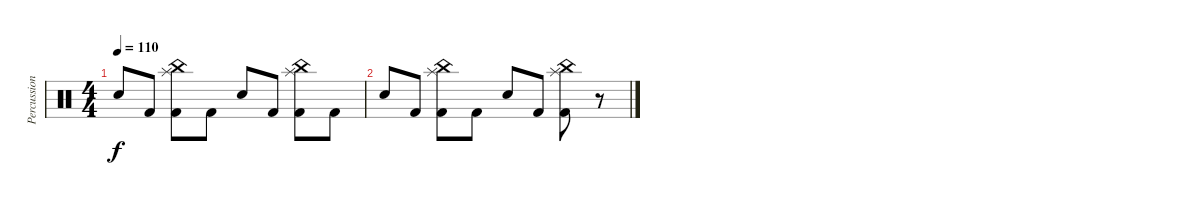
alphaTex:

\track ("Percussions" "Percussion") {instrument percussion}
\staff {score}
\articulation defaults
\ts (4 4)
\tempo 110
\clef neutral
\ks c "Snare (hit) 2".8{dy f} "Kick (hit) 2".8
("Splash (hit)" "China (hit)" "Kick (hit) 2").8 "Kick (hit) 2".8 "Snare (hit) 2".8 "Kick (hit) 2".8 ("Splash (hit)" "China (hit)" "Kick (hit) 2").8 "Kick (hit) 2".8 |
"Snare (hit) 2".8 "Kick (hit) 2".8 ("Splash (hit)" "China (hit)" "Kick (hit) 2").8 "Kick (hit) 2".8 "Snare (hit) 2".8 "Kick (hit) 2".8 ("Splash (hit)" "China (hit)" "Kick (hit) 2").8 r.8
